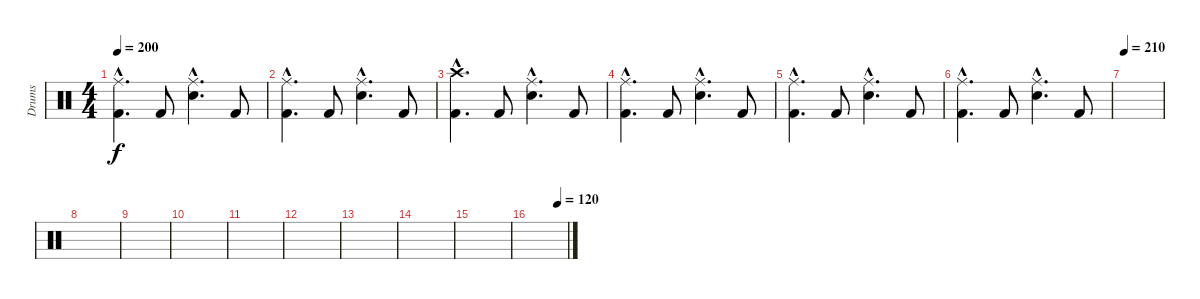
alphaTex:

\track ("Drums" "Drums") {instrument percussion}
\staff {score}
\articulation defaults
\ts (4 4)
\tempo 200
\clef neutral
\ks c
("Ride (middle)"{hac} "Kick (hit) 2"{hac}).4{d dy f} "Kick (hit) 2".8 ("Ride (middle)"{hac} "Snare (hit) 2"{hac}).4{d} "Kick (hit) 2".8 |
("Ride (middle)"{hac} "Kick (hit) 2"{hac}).4{d} "Kick (hit) 2".8 ("Ride (middle)"{hac} "Snare (hit) 2"{hac}).4{d} "Kick (hit) 2".8 |
("Crash high (hit)"{hac} "Kick (hit) 2"{hac}).4{d} "Kick (hit) 2".8 ("Ride (middle)"{hac} "Snare (hit) 2"{hac}).4{d} "Kick (hit) 2".8 |
("Ride (middle)"{hac} "Kick (hit) 2"{hac}).4{d} "Kick (hit) 2".8 ("Ride (middle)"{hac} "Snare (hit) 2"{hac}).4{d} "Kick (hit) 2".8 |
("Ride (middle)"{hac} "Kick (hit) 2"{hac}).4{d} "Kick (hit) 2".8 ("Ride (middle)"{hac} "Snare (hit) 2"{hac}).4{d} "Kick (hit) 2".8 |
("Ride (middle)"{hac} "Kick (hit) 2"{hac}).4{d} "Kick (hit) 2".8 ("Ride (middle)"{hac} "Snare (hit) 2"{hac}).4{d} "Kick (hit) 2".8 |
\tempo 210
|
|
|
|
|
|
|
|
|
\tempo (120 0.75)
